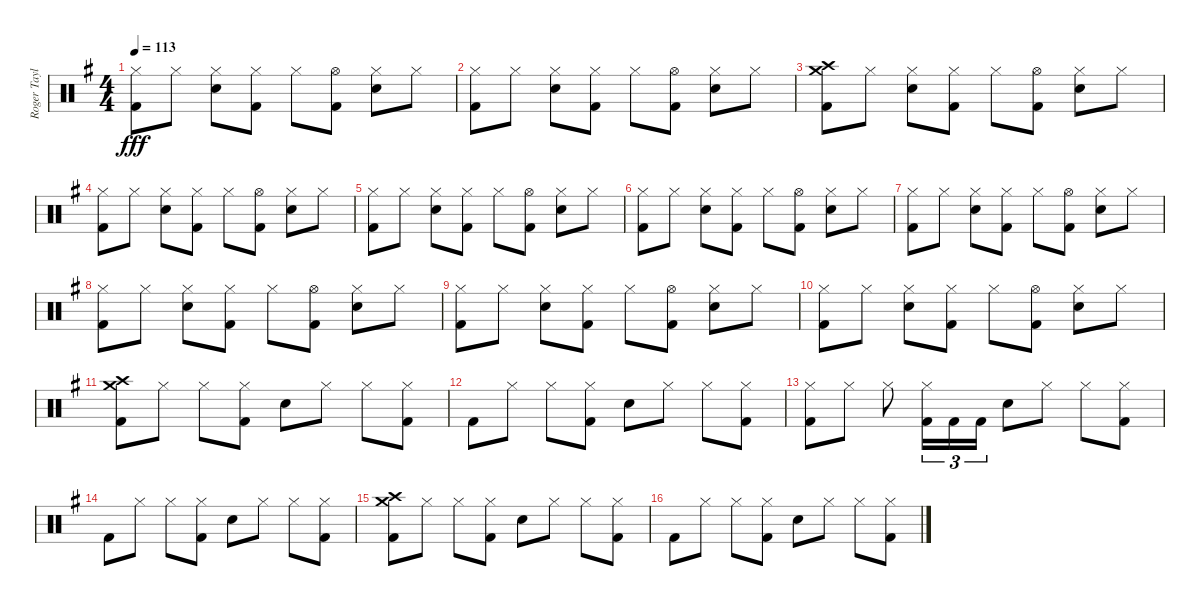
\track ("Roger Taylor" "Roger Tayl") {instrument percussion}
\staff {score}
\articulation defaults
\ts (4 4)
\tempo 113
\clef neutral
\ks g
("Hi-Hat (closed)" "Kick (hit) 2").8{dy fff} "Hi-Hat (closed)".8 ("Hi-Hat (closed)" "Snare (hit) 2").8 ("Hi-Hat (closed)" "Kick (hit) 2").8 "Hi-Hat (closed)".8 ("Hi-Hat (open)" "Kick (hit) 2").8 ("Hi-Hat (closed)" "Snare (hit) 2").8 "Hi-Hat (closed)".8 |
("Hi-Hat (closed)" "Kick (hit) 2").8 "Hi-Hat (closed)".8 ("Hi-Hat (closed)" "Snare (hit) 2").8 ("Hi-Hat (closed)" "Kick (hit) 2").8 "Hi-Hat (closed)".8 ("Hi-Hat (open)" "Kick (hit) 2").8 ("Hi-Hat (closed)" "Snare (hit) 2").8 "Hi-Hat (closed)".8 |
("Crash high (hit)" "Crash medium (hit)" "Kick (hit) 2").8 "Hi-Hat (closed)".8 ("Hi-Hat (closed)" "Snare (hit) 2").8 ("Hi-Hat (closed)" "Kick (hit) 2").8 "Hi-Hat (closed)".8 ("Hi-Hat (open)" "Kick (hit) 2").8 ("Hi-Hat (closed)" "Snare (hit) 2").8 "Hi-Hat (closed)".8 |
("Hi-Hat (closed)" "Kick (hit) 2").8 "Hi-Hat (closed)".8 ("Hi-Hat (closed)" "Snare (hit) 2").8 ("Hi-Hat (closed)" "Kick (hit) 2").8 "Hi-Hat (closed)".8 ("Hi-Hat (open)" "Kick (hit) 2").8 ("Hi-Hat (closed)" "Snare (hit) 2").8 "Hi-Hat (closed)".8 |
("Hi-Hat (closed)" "Kick (hit) 2").8 "Hi-Hat (closed)".8 ("Hi-Hat (closed)" "Snare (hit) 2").8 ("Hi-Hat (closed)" "Kick (hit) 2").8 "Hi-Hat (closed)".8 ("Hi-Hat (open)" "Kick (hit) 2").8 ("Hi-Hat (closed)" "Snare (hit) 2").8 "Hi-Hat (closed)".8 |
("Hi-Hat (closed)" "Kick (hit) 2").8 "Hi-Hat (closed)".8 ("Hi-Hat (closed)" "Snare (hit) 2").8 ("Hi-Hat (closed)" "Kick (hit) 2").8 "Hi-Hat (closed)".8 ("Hi-Hat (open)" "Kick (hit) 2").8 ("Hi-Hat (closed)" "Snare (hit) 2").8 "Hi-Hat (closed)".8 |
("Hi-Hat (closed)" "Kick (hit) 2").8 "Hi-Hat (closed)".8 ("Hi-Hat (closed)" "Snare (hit) 2").8 ("Hi-Hat (closed)" "Kick (hit) 2").8 "Hi-Hat (closed)".8 ("Hi-Hat (open)" "Kick (hit) 2").8 ("Hi-Hat (closed)" "Snare (hit) 2").8 "Hi-Hat (closed)".8 |
("Hi-Hat (closed)" "Kick (hit) 2").8 "Hi-Hat (closed)".8 ("Hi-Hat (closed)" "Snare (hit) 2").8 ("Hi-Hat (closed)" "Kick (hit) 2").8 "Hi-Hat (closed)".8 ("Hi-Hat (open)" "Kick (hit) 2").8 ("Hi-Hat (closed)" "Snare (hit) 2").8 "Hi-Hat (closed)".8 |
("Hi-Hat (closed)" "Kick (hit) 2").8 "Hi-Hat (closed)".8 ("Hi-Hat (closed)" "Snare (hit) 2").8 ("Hi-Hat (closed)" "Kick (hit) 2").8 "Hi-Hat (closed)".8 ("Hi-Hat (open)" "Kick (hit) 2").8 ("Hi-Hat (closed)" "Snare (hit) 2").8 "Hi-Hat (closed)".8 |
("Hi-Hat (closed)" "Kick (hit) 2").8 "Hi-Hat (closed)".8 ("Hi-Hat (closed)" "Snare (hit) 2").8 ("Hi-Hat (closed)" "Kick (hit) 2").8 "Hi-Hat (closed)".8 ("Hi-Hat (open)" "Kick (hit) 2").8 ("Hi-Hat (closed)" "Snare (hit) 2").8 "Hi-Hat (closed)".8 |
("Crash high (hit)" "Crash medium (hit)" "Kick (hit) 2").8 "Hi-Hat (closed)".8 "Hi-Hat (closed)".8 ("Kick (hit) 2" "Hi-Hat (closed)").8 "Snare (hit) 2".8 "Hi-Hat (closed)".8 "Hi-Hat (closed)".8 ("Kick (hit) 2" "Hi-Hat (closed)").8 |
"Kick (hit) 2".8 "Hi-Hat (closed)".8 "Hi-Hat (closed)".8 ("Kick (hit) 2" "Hi-Hat (closed)").8 "Snare (hit) 2".8 "Hi-Hat (closed)".8 "Hi-Hat (closed)".8 ("Kick (hit) 2" "Hi-Hat (closed)").8 |
("Hi-Hat (closed)" "Kick (hit) 2").8 "Hi-Hat (closed)".8 "Hi-Hat (closed)".8 ("Kick (hit) 2" "Hi-Hat (closed)").16{tu (3 2)} "Kick (hit) 2".16{tu (3 2)} "Kick (hit) 2".16{tu (3 2)} "Snare (hit) 2".8 "Hi-Hat (closed)".8 "Hi-Hat (closed)".8 ("Kick (hit) 2" "Hi-Hat (closed)").8 |
"Kick (hit) 2".8 "Hi-Hat (closed)".8 "Hi-Hat (closed)".8 ("Kick (hit) 2" "Hi-Hat (closed)").8 "Snare (hit) 2".8 "Hi-Hat (closed)".8 "Hi-Hat (closed)".8 ("Kick (hit) 2" "Hi-Hat (closed)").8 |
("Crash high (hit)" "Crash medium (hit)" "Kick (hit) 2").8 "Hi-Hat (closed)".8 "Hi-Hat (closed)".8 ("Kick (hit) 2" "Hi-Hat (closed)").8 "Snare (hit) 2".8 "Hi-Hat (closed)".8 "Hi-Hat (closed)".8 ("Kick (hit) 2" "Hi-Hat (closed)").8 |
"Kick (hit) 2".8 "Hi-Hat (closed)".8 "Hi-Hat (closed)".8 ("Kick (hit) 2" "Hi-Hat (closed)").8 "Snare (hit) 2".8 "Hi-Hat (closed)".8 "Hi-Hat (closed)".8 ("Kick (hit) 2" "Hi-Hat (closed)").8
